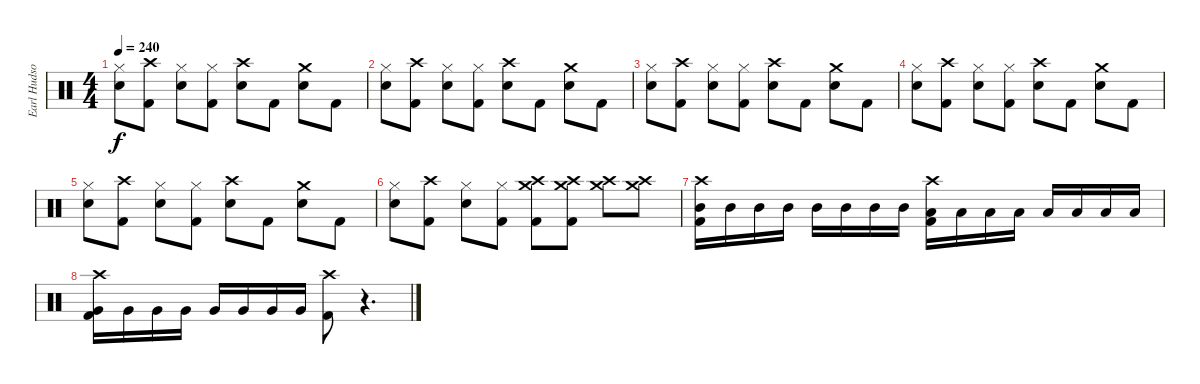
\track ("Earl Hudson" "Earl Hudso") {instrument percussion}
\staff {score}
\articulation defaults
\ts (4 4)
\tempo 240
\clef neutral
\ks c
("Hi-Hat (closed)" "Snare (hit) 2").8{dy f} ("Crash high (hit)" "Kick (hit) 2").8 ("Hi-Hat (closed)" "Snare (hit) 2").8 ("Hi-Hat (closed)" "Kick (hit) 2").8 ("Crash high (hit)" "Snare (hit) 2").8 "Kick (hit) 2".8 ("Crash medium (hit)" "Snare (hit) 2").8 "Kick (hit) 2".8 |
("Hi-Hat (closed)" "Snare (hit) 2").8 ("Crash high (hit)" "Kick (hit) 2").8 ("Hi-Hat (closed)" "Snare (hit) 2").8 ("Hi-Hat (closed)" "Kick (hit) 2").8 ("Crash high (hit)" "Snare (hit) 2").8 "Kick (hit) 2".8 ("Crash medium (hit)" "Snare (hit) 2").8 "Kick (hit) 2".8 |
("Hi-Hat (closed)" "Snare (hit) 2").8 ("Crash high (hit)" "Kick (hit) 2").8 ("Hi-Hat (closed)" "Snare (hit) 2").8 ("Hi-Hat (closed)" "Kick (hit) 2").8 ("Crash high (hit)" "Snare (hit) 2").8 "Kick (hit) 2".8 ("Crash medium (hit)" "Snare (hit) 2").8 "Kick (hit) 2".8 |
("Hi-Hat (closed)" "Snare (hit) 2").8 ("Crash high (hit)" "Kick (hit) 2").8 ("Hi-Hat (closed)" "Snare (hit) 2").8 ("Hi-Hat (closed)" "Kick (hit) 2").8 ("Crash high (hit)" "Snare (hit) 2").8 "Kick (hit) 2".8 ("Crash medium (hit)" "Snare (hit) 2").8 "Kick (hit) 2".8 |
("Hi-Hat (closed)" "Snare (hit) 2").8 ("Crash high (hit)" "Kick (hit) 2").8 ("Hi-Hat (closed)" "Snare (hit) 2").8 ("Hi-Hat (closed)" "Kick (hit) 2").8 ("Crash high (hit)" "Snare (hit) 2").8 "Kick (hit) 2".8 ("Crash medium (hit)" "Snare (hit) 2").8 "Kick (hit) 2".8 |
("Hi-Hat (closed)" "Snare (hit) 2").8 ("Crash high (hit)" "Kick (hit) 2").8 ("Hi-Hat (closed)" "Snare (hit) 2").8 ("Hi-Hat (closed)" "Kick (hit) 2").8 ("Crash high (hit)" "Crash medium (hit)" "Kick (hit) 2").8 ("Crash high (hit)" "Crash medium (hit)" "Kick (hit) 2").8 ("Crash high (hit)" "Crash medium (hit)").8 ("Crash high (hit)" "Crash medium (hit)").8 |
("Crash high (hit)" "Mid Tom (hit)" "Kick (hit) 2").16 "Mid Tom (hit)".16 "Mid Tom (hit)".16 "Mid Tom (hit)".16 "Mid Tom (hit)".16 "Mid Tom (hit)".16 "Mid Tom (hit)".16 "Mid Tom (hit)".16 ("Crash high (hit)" "Low Tom (hit)" "Kick (hit) 2").16 "Low Tom (hit)".16 "Low Tom (hit)".16 "Low Tom (hit)".16 "Low Tom (hit)".16 "Low Tom (hit)".16 "Low Tom (hit)".16 "Low Tom (hit)".16 |
("Crash high (hit)" "Very Low Tom (hit)" "Kick (hit) 2").16 "Very Low Tom (hit)".16 "Very Low Tom (hit)".16 "Very Low Tom (hit)".16 "Very Low Tom (hit)".16 "Very Low Tom (hit)".16 "Very Low Tom (hit)".16 "Very Low Tom (hit)".16 ("Crash high (hit)" "Kick (hit) 2").8 r.4{d}
